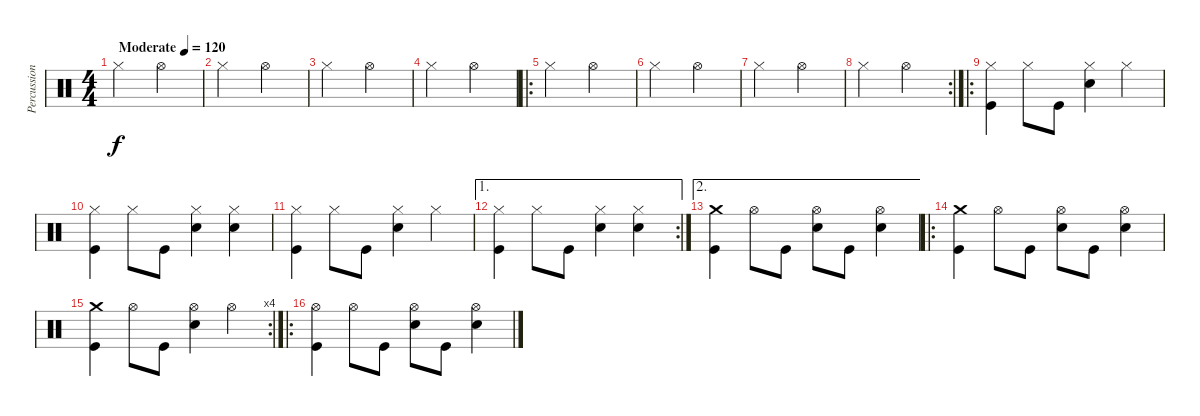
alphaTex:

\track ("Percussion" "Percussion") {instrument percussion}
\staff {score}
\articulation defaults
\ts (4 4)
\tempo (120 "Moderate")
\clef neutral
\ks c "Hi-Hat (closed)".2{dy f} "Hi-Hat (open)".2
|
"Hi-Hat (closed)".2 "Hi-Hat (open)".2 |
"Hi-Hat (closed)".2 "Hi-Hat (open)".2 |
"Hi-Hat (closed)".2 "Hi-Hat (open)".2 |
\ro "Hi-Hat (closed)".2 "Hi-Hat (open)".2
|
"Hi-Hat (closed)".2 "Hi-Hat (open)".2 |
"Hi-Hat (closed)".2 "Hi-Hat (open)".2 |
\rc 2 "Hi-Hat (closed)".2 "Hi-Hat (open)".2
|
\ro
("Hi-Hat (closed)" "Kick (hit)").4 "Hi-Hat (closed)".8 "Kick (hit)".8 ("Hi-Hat (closed)" "Snare (hit) 2").4 "Hi-Hat (closed)".4 |
("Hi-Hat (closed)" "Kick (hit)").4 "Hi-Hat (closed)".8 "Kick (hit)".8 ("Hi-Hat (closed)" "Snare (hit) 2").4 ("Hi-Hat (closed)" "Snare (hit) 2").4 |
("Hi-Hat (closed)" "Kick (hit)").4 "Hi-Hat (closed)".8 "Kick (hit)".8 ("Hi-Hat (closed)" "Snare (hit) 2").4 "Hi-Hat (closed)".4 |
\ae 1
\rc 2
("Hi-Hat (closed)" "Kick (hit)").4 "Hi-Hat (closed)".8 "Kick (hit)".8 ("Hi-Hat (closed)" "Snare (hit) 2").4 ("Hi-Hat (closed)" "Snare (hit) 2").4 |
\ae 2
("Crash medium (hit)" "Kick (hit)").4 "Hi-Hat (open)".8 "Kick (hit)".8 ("Hi-Hat (open)" "Snare (hit) 2").8 "Kick (hit)".8 ("Hi-Hat (open)" "Snare (hit) 2").4 |
\ro
("Crash medium (hit)" "Kick (hit)").4 "Hi-Hat (open)".8 "Kick (hit)".8 ("Hi-Hat (open)" "Snare (hit) 2").8 "Kick (hit)".8 ("Hi-Hat (open)" "Snare (hit) 2").4 |
\rc 4
("Crash medium (hit)" "Kick (hit)").4 "Hi-Hat (open)".8 "Kick (hit)".8 ("Hi-Hat (open)" "Snare (hit) 2").4 "Hi-Hat (open)".4 |
\ro
("Hi-Hat (open)" "Kick (hit)").4 "Hi-Hat (open)".8 "Kick (hit)".8 ("Hi-Hat (open)" "Snare (hit) 2").8 "Kick (hit)".8 ("Hi-Hat (open)" "Snare (hit) 2").4
